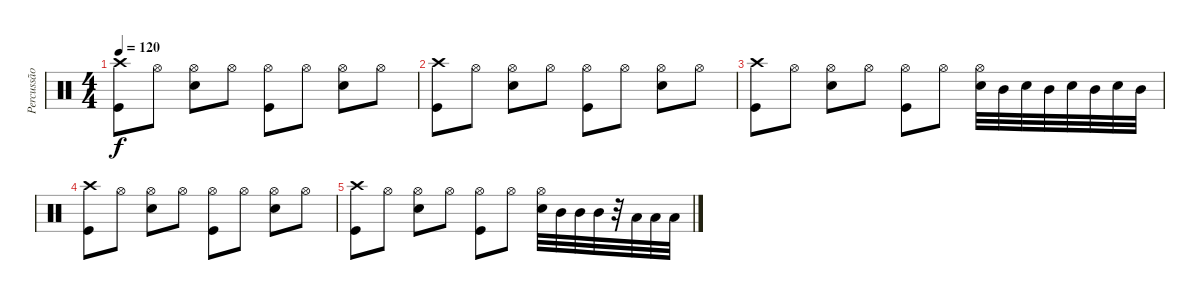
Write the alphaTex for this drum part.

\track ("Percussão" "Percussão") {instrument percussion}
\staff {score}
\articulation defaults
\ts (4 4)
\tempo 120
\clef neutral
\ks c
("Crash high (hit)" "Kick (hit)").8{dy f volume 8} "Hi-Hat (open)".8 ("Hi-Hat (open)" "Snare (hit) 2").8 "Hi-Hat (open)".8 ("Hi-Hat (open)" "Kick (hit)").8 "Hi-Hat (open)".8 ("Hi-Hat (open)" "Snare (hit) 2").8 "Hi-Hat (open)".8 |
("Crash high (hit)" "Kick (hit)").8{volume 5} "Hi-Hat (open)".8 ("Hi-Hat (open)" "Snare (hit) 2").8 "Hi-Hat (open)".8 ("Hi-Hat (open)" "Kick (hit)").8 "Hi-Hat (open)".8 ("Hi-Hat (open)" "Snare (hit) 2").8 "Hi-Hat (open)".8 |
("Crash high (hit)" "Kick (hit)").8{volume 0} "Hi-Hat (open)".8 ("Hi-Hat (open)" "Snare (hit) 2").8 "Hi-Hat (open)".8 ("Hi-Hat (open)" "Kick (hit)").8 "Hi-Hat (open)".8 ("Hi-Hat (open)" "Snare (hit) 2").32 "Mid Tom (hit)".32 "Snare (hit) 2".32 "Mid Tom (hit)".32 "Snare (hit) 2".32 "Mid Tom (hit)".32 "Snare (hit) 2".32 "Mid Tom (hit)".32 |
("Crash high (hit)" "Kick (hit)").8 "Hi-Hat (open)".8 ("Hi-Hat (open)" "Snare (hit) 2").8 "Hi-Hat (open)".8 ("Hi-Hat (open)" "Kick (hit)").8 "Hi-Hat (open)".8 ("Hi-Hat (open)" "Snare (hit) 2").8 "Hi-Hat (open)".8 |
("Crash high (hit)" "Kick (hit)").8 "Hi-Hat (open)".8 ("Hi-Hat (open)" "Snare (hit) 2").8 "Hi-Hat (open)".8 ("Hi-Hat (open)" "Kick (hit)").8 "Hi-Hat (open)".8 ("Hi-Hat (open)" "Snare (hit) 2").32 "Mid Tom (hit)".32 "Mid Tom (hit)".32 "Mid Tom (hit)".32 r.32 "Low Floor Tom (hit)".32 "Low Floor Tom (hit)".32 "Low Floor Tom (hit)".32
